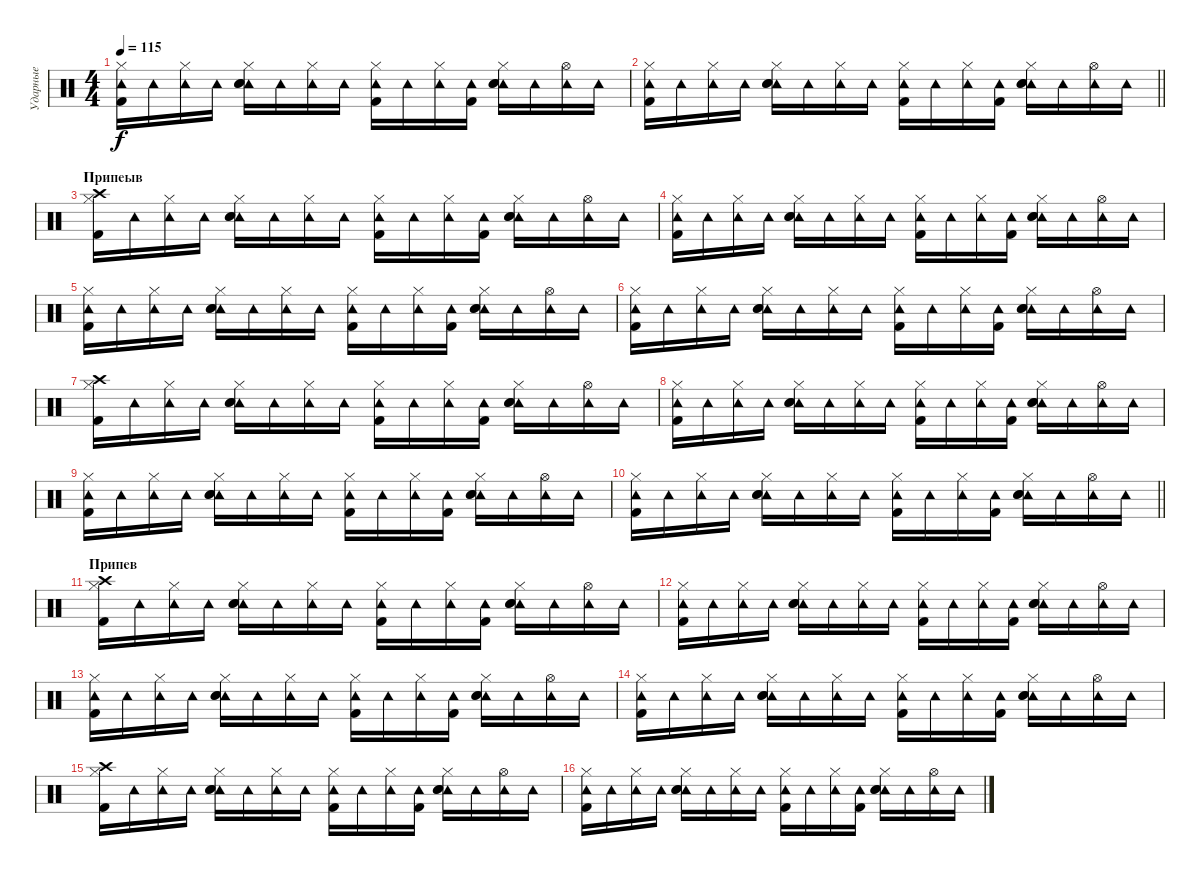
\track ("Ударные" "Ударные") {instrument percussion}
\staff {score}
\articulation defaults
\ts (4 4)
\tempo 115
\clef neutral
\ks c
("Tambourine (hit)" "Hi-Hat (closed)" "Kick (hit) 2").16{dy f} "Tambourine (hit)".16 ("Tambourine (hit)" "Hi-Hat (closed)").16 "Tambourine (hit)".16 ("Tambourine (hit)" "Hi-Hat (closed)" "Electric Snare (hit)" "Snare (hit) 2").16 "Tambourine (hit)".16 ("Tambourine (hit)" "Hi-Hat (closed)").16 "Tambourine (hit)".16 ("Tambourine (hit)" "Hi-Hat (closed)" "Kick (hit) 2").16 "Tambourine (hit)".16 ("Tambourine (hit)" "Hi-Hat (closed)").16 ("Tambourine (hit)" "Kick (hit) 2").16 ("Tambourine (hit)" "Hi-Hat (closed)" "Electric Snare (hit)" "Snare (hit) 2").16 "Tambourine (hit)".16 ("Tambourine (hit)" "Hi-Hat (open)").16 "Tambourine (hit)".16 |
\barLineRight lightlight
("Tambourine (hit)" "Hi-Hat (closed)" "Kick (hit) 2").16 "Tambourine (hit)".16 ("Tambourine (hit)" "Hi-Hat (closed)").16 "Tambourine (hit)".16 ("Tambourine (hit)" "Hi-Hat (closed)" "Electric Snare (hit)" "Snare (hit) 2").16 "Tambourine (hit)".16 ("Tambourine (hit)" "Hi-Hat (closed)").16 "Tambourine (hit)".16 ("Tambourine (hit)" "Hi-Hat (closed)" "Kick (hit) 2").16 "Tambourine (hit)".16 ("Tambourine (hit)" "Hi-Hat (closed)").16 ("Tambourine (hit)" "Kick (hit) 2").16 ("Tambourine (hit)" "Hi-Hat (closed)" "Electric Snare (hit)" "Snare (hit) 2").16 "Tambourine (hit)".16 ("Tambourine (hit)" "Hi-Hat (open)").16 "Tambourine (hit)".16 |
\section ("" "Припеыв")
("Crash high (hit)" "Hi-Hat (closed)" "Kick (hit) 2").16 "Tambourine (hit)".16 ("Tambourine (hit)" "Hi-Hat (closed)").16 "Tambourine (hit)".16 ("Tambourine (hit)" "Hi-Hat (closed)" "Electric Snare (hit)" "Snare (hit) 2").16 "Tambourine (hit)".16 ("Tambourine (hit)" "Hi-Hat (closed)").16 "Tambourine (hit)".16 ("Tambourine (hit)" "Hi-Hat (closed)" "Kick (hit) 2").16 "Tambourine (hit)".16 ("Tambourine (hit)" "Hi-Hat (closed)").16 ("Tambourine (hit)" "Kick (hit) 2").16 ("Tambourine (hit)" "Hi-Hat (closed)" "Electric Snare (hit)" "Snare (hit) 2").16 "Tambourine (hit)".16 ("Tambourine (hit)" "Hi-Hat (open)").16 "Tambourine (hit)".16 |
("Tambourine (hit)" "Hi-Hat (closed)" "Kick (hit) 2").16 "Tambourine (hit)".16 ("Tambourine (hit)" "Hi-Hat (closed)").16 "Tambourine (hit)".16 ("Tambourine (hit)" "Hi-Hat (closed)" "Electric Snare (hit)" "Snare (hit) 2").16 "Tambourine (hit)".16 ("Tambourine (hit)" "Hi-Hat (closed)").16 "Tambourine (hit)".16 ("Tambourine (hit)" "Hi-Hat (closed)" "Kick (hit) 2").16 "Tambourine (hit)".16 ("Tambourine (hit)" "Hi-Hat (closed)").16 ("Tambourine (hit)" "Kick (hit) 2").16 ("Tambourine (hit)" "Hi-Hat (closed)" "Electric Snare (hit)" "Snare (hit) 2").16 "Tambourine (hit)".16 ("Tambourine (hit)" "Hi-Hat (open)").16 "Tambourine (hit)".16 |
("Tambourine (hit)" "Hi-Hat (closed)" "Kick (hit) 2").16 "Tambourine (hit)".16 ("Tambourine (hit)" "Hi-Hat (closed)").16 "Tambourine (hit)".16 ("Tambourine (hit)" "Hi-Hat (closed)" "Electric Snare (hit)" "Snare (hit) 2").16 "Tambourine (hit)".16 ("Tambourine (hit)" "Hi-Hat (closed)").16 "Tambourine (hit)".16 ("Tambourine (hit)" "Hi-Hat (closed)" "Kick (hit) 2").16 "Tambourine (hit)".16 ("Tambourine (hit)" "Hi-Hat (closed)").16 ("Tambourine (hit)" "Kick (hit) 2").16 ("Tambourine (hit)" "Hi-Hat (closed)" "Electric Snare (hit)" "Snare (hit) 2").16 "Tambourine (hit)".16 ("Tambourine (hit)" "Hi-Hat (open)").16 "Tambourine (hit)".16 |
("Tambourine (hit)" "Hi-Hat (closed)" "Kick (hit) 2").16 "Tambourine (hit)".16 ("Tambourine (hit)" "Hi-Hat (closed)").16 "Tambourine (hit)".16 ("Tambourine (hit)" "Hi-Hat (closed)" "Electric Snare (hit)" "Snare (hit) 2").16 "Tambourine (hit)".16 ("Tambourine (hit)" "Hi-Hat (closed)").16 "Tambourine (hit)".16 ("Tambourine (hit)" "Hi-Hat (closed)" "Kick (hit) 2").16 "Tambourine (hit)".16 ("Tambourine (hit)" "Hi-Hat (closed)").16 ("Tambourine (hit)" "Kick (hit) 2").16 ("Tambourine (hit)" "Hi-Hat (closed)" "Electric Snare (hit)" "Snare (hit) 2").16 "Tambourine (hit)".16 ("Tambourine (hit)" "Hi-Hat (open)").16 "Tambourine (hit)".16 |
("Crash high (hit)" "Hi-Hat (closed)" "Kick (hit) 2").16 "Tambourine (hit)".16 ("Tambourine (hit)" "Hi-Hat (closed)").16 "Tambourine (hit)".16 ("Tambourine (hit)" "Hi-Hat (closed)" "Electric Snare (hit)" "Snare (hit) 2").16 "Tambourine (hit)".16 ("Tambourine (hit)" "Hi-Hat (closed)").16 "Tambourine (hit)".16 ("Tambourine (hit)" "Hi-Hat (closed)" "Kick (hit) 2").16 "Tambourine (hit)".16 ("Tambourine (hit)" "Hi-Hat (closed)").16 ("Tambourine (hit)" "Kick (hit) 2").16 ("Tambourine (hit)" "Hi-Hat (closed)" "Electric Snare (hit)" "Snare (hit) 2").16 "Tambourine (hit)".16 ("Tambourine (hit)" "Hi-Hat (open)").16 "Tambourine (hit)".16 |
("Tambourine (hit)" "Hi-Hat (closed)" "Kick (hit) 2").16 "Tambourine (hit)".16 ("Tambourine (hit)" "Hi-Hat (closed)").16 "Tambourine (hit)".16 ("Tambourine (hit)" "Hi-Hat (closed)" "Electric Snare (hit)" "Snare (hit) 2").16 "Tambourine (hit)".16 ("Tambourine (hit)" "Hi-Hat (closed)").16 "Tambourine (hit)".16 ("Tambourine (hit)" "Hi-Hat (closed)" "Kick (hit) 2").16 "Tambourine (hit)".16 ("Tambourine (hit)" "Hi-Hat (closed)").16 ("Tambourine (hit)" "Kick (hit) 2").16 ("Tambourine (hit)" "Hi-Hat (closed)" "Electric Snare (hit)" "Snare (hit) 2").16 "Tambourine (hit)".16 ("Tambourine (hit)" "Hi-Hat (open)").16 "Tambourine (hit)".16 |
("Tambourine (hit)" "Hi-Hat (closed)" "Kick (hit) 2").16 "Tambourine (hit)".16 ("Tambourine (hit)" "Hi-Hat (closed)").16 "Tambourine (hit)".16 ("Tambourine (hit)" "Hi-Hat (closed)" "Electric Snare (hit)" "Snare (hit) 2").16 "Tambourine (hit)".16 ("Tambourine (hit)" "Hi-Hat (closed)").16 "Tambourine (hit)".16 ("Tambourine (hit)" "Hi-Hat (closed)" "Kick (hit) 2").16 "Tambourine (hit)".16 ("Tambourine (hit)" "Hi-Hat (closed)").16 ("Tambourine (hit)" "Kick (hit) 2").16 ("Tambourine (hit)" "Hi-Hat (closed)" "Electric Snare (hit)" "Snare (hit) 2").16 "Tambourine (hit)".16 ("Tambourine (hit)" "Hi-Hat (open)").16 "Tambourine (hit)".16 |
\barLineRight lightlight
("Tambourine (hit)" "Hi-Hat (closed)" "Kick (hit) 2").16 "Tambourine (hit)".16 ("Tambourine (hit)" "Hi-Hat (closed)").16 "Tambourine (hit)".16 ("Tambourine (hit)" "Hi-Hat (closed)" "Electric Snare (hit)" "Snare (hit) 2").16 "Tambourine (hit)".16 ("Tambourine (hit)" "Hi-Hat (closed)").16 "Tambourine (hit)".16 ("Tambourine (hit)" "Hi-Hat (closed)" "Kick (hit) 2").16 "Tambourine (hit)".16 ("Tambourine (hit)" "Hi-Hat (closed)").16 ("Tambourine (hit)" "Kick (hit) 2").16 ("Tambourine (hit)" "Hi-Hat (closed)" "Electric Snare (hit)" "Snare (hit) 2").16 "Tambourine (hit)".16 ("Tambourine (hit)" "Hi-Hat (open)").16 "Tambourine (hit)".16 |
\section ("" "Припев")
("Crash high (hit)" "Hi-Hat (closed)" "Kick (hit) 2").16 "Tambourine (hit)".16 ("Tambourine (hit)" "Hi-Hat (closed)").16 "Tambourine (hit)".16 ("Tambourine (hit)" "Hi-Hat (closed)" "Electric Snare (hit)" "Snare (hit) 2").16 "Tambourine (hit)".16 ("Tambourine (hit)" "Hi-Hat (closed)").16 "Tambourine (hit)".16 ("Tambourine (hit)" "Hi-Hat (closed)" "Kick (hit) 2").16 "Tambourine (hit)".16 ("Tambourine (hit)" "Hi-Hat (closed)").16 ("Tambourine (hit)" "Kick (hit) 2").16 ("Tambourine (hit)" "Hi-Hat (closed)" "Electric Snare (hit)" "Snare (hit) 2").16 "Tambourine (hit)".16 ("Tambourine (hit)" "Hi-Hat (open)").16 "Tambourine (hit)".16 |
("Tambourine (hit)" "Hi-Hat (closed)" "Kick (hit) 2").16 "Tambourine (hit)".16 ("Tambourine (hit)" "Hi-Hat (closed)").16 "Tambourine (hit)".16 ("Tambourine (hit)" "Hi-Hat (closed)" "Electric Snare (hit)" "Snare (hit) 2").16 "Tambourine (hit)".16 ("Tambourine (hit)" "Hi-Hat (closed)").16 "Tambourine (hit)".16 ("Tambourine (hit)" "Hi-Hat (closed)" "Kick (hit) 2").16 "Tambourine (hit)".16 ("Tambourine (hit)" "Hi-Hat (closed)").16 ("Tambourine (hit)" "Kick (hit) 2").16 ("Tambourine (hit)" "Hi-Hat (closed)" "Electric Snare (hit)" "Snare (hit) 2").16 "Tambourine (hit)".16 ("Tambourine (hit)" "Hi-Hat (open)").16 "Tambourine (hit)".16 |
("Tambourine (hit)" "Hi-Hat (closed)" "Kick (hit) 2").16 "Tambourine (hit)".16 ("Tambourine (hit)" "Hi-Hat (closed)").16 "Tambourine (hit)".16 ("Tambourine (hit)" "Hi-Hat (closed)" "Electric Snare (hit)" "Snare (hit) 2").16 "Tambourine (hit)".16 ("Tambourine (hit)" "Hi-Hat (closed)").16 "Tambourine (hit)".16 ("Tambourine (hit)" "Hi-Hat (closed)" "Kick (hit) 2").16 "Tambourine (hit)".16 ("Tambourine (hit)" "Hi-Hat (closed)").16 ("Tambourine (hit)" "Kick (hit) 2").16 ("Tambourine (hit)" "Hi-Hat (closed)" "Electric Snare (hit)" "Snare (hit) 2").16 "Tambourine (hit)".16 ("Tambourine (hit)" "Hi-Hat (open)").16 "Tambourine (hit)".16 |
("Tambourine (hit)" "Hi-Hat (closed)" "Kick (hit) 2").16 "Tambourine (hit)".16 ("Tambourine (hit)" "Hi-Hat (closed)").16 "Tambourine (hit)".16 ("Tambourine (hit)" "Hi-Hat (closed)" "Electric Snare (hit)" "Snare (hit) 2").16 "Tambourine (hit)".16 ("Tambourine (hit)" "Hi-Hat (closed)").16 "Tambourine (hit)".16 ("Tambourine (hit)" "Hi-Hat (closed)" "Kick (hit) 2").16 "Tambourine (hit)".16 ("Tambourine (hit)" "Hi-Hat (closed)").16 ("Tambourine (hit)" "Kick (hit) 2").16 ("Tambourine (hit)" "Hi-Hat (closed)" "Electric Snare (hit)" "Snare (hit) 2").16 "Tambourine (hit)".16 ("Tambourine (hit)" "Hi-Hat (open)").16 "Tambourine (hit)".16 |
("Crash high (hit)" "Hi-Hat (closed)" "Kick (hit) 2").16 "Tambourine (hit)".16 ("Tambourine (hit)" "Hi-Hat (closed)").16 "Tambourine (hit)".16 ("Tambourine (hit)" "Hi-Hat (closed)" "Electric Snare (hit)" "Snare (hit) 2").16 "Tambourine (hit)".16 ("Tambourine (hit)" "Hi-Hat (closed)").16 "Tambourine (hit)".16 ("Tambourine (hit)" "Hi-Hat (closed)" "Kick (hit) 2").16 "Tambourine (hit)".16 ("Tambourine (hit)" "Hi-Hat (closed)").16 ("Tambourine (hit)" "Kick (hit) 2").16 ("Tambourine (hit)" "Hi-Hat (closed)" "Electric Snare (hit)" "Snare (hit) 2").16 "Tambourine (hit)".16 ("Tambourine (hit)" "Hi-Hat (open)").16 "Tambourine (hit)".16 |
("Tambourine (hit)" "Hi-Hat (closed)" "Kick (hit) 2").16 "Tambourine (hit)".16 ("Tambourine (hit)" "Hi-Hat (closed)").16 "Tambourine (hit)".16 ("Tambourine (hit)" "Hi-Hat (closed)" "Electric Snare (hit)" "Snare (hit) 2").16 "Tambourine (hit)".16 ("Tambourine (hit)" "Hi-Hat (closed)").16 "Tambourine (hit)".16 ("Tambourine (hit)" "Hi-Hat (closed)" "Kick (hit) 2").16 "Tambourine (hit)".16 ("Tambourine (hit)" "Hi-Hat (closed)").16 ("Tambourine (hit)" "Kick (hit) 2").16 ("Tambourine (hit)" "Hi-Hat (closed)" "Electric Snare (hit)" "Snare (hit) 2").16 "Tambourine (hit)".16 ("Tambourine (hit)" "Hi-Hat (open)").16 "Tambourine (hit)".16
